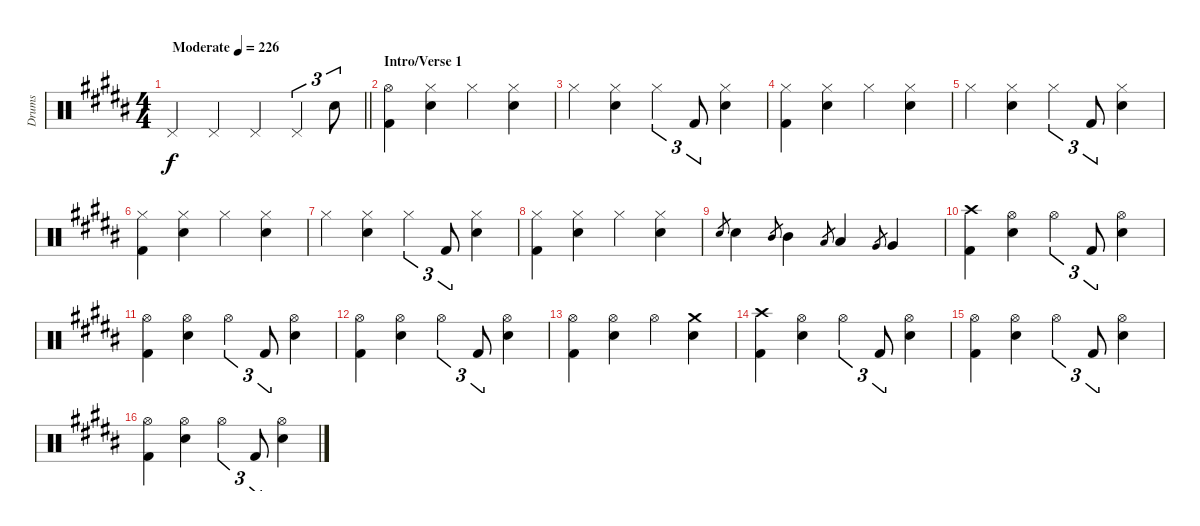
\track ("Drums" "Drums") {instrument percussion}
\staff {score}
\articulation defaults
\ts (4 4)
\tempo (226 "Moderate")
\clef neutral
\barLineRight lightlight
\ks b "Pedal Hi-Hat (hit)".4{dy f} "Pedal Hi-Hat (hit)".4 "Pedal Hi-Hat (hit)".4 "Pedal Hi-Hat (hit)".4{tu (3 2)} "Snare (hit) 2".8{tu (3 2)}
|
\section ("" "Intro/Verse 1")
("Hi-Hat (open)" "Kick (hit) 2").4 ("Hi-Hat (closed)" "Snare (hit) 2").4 "Hi-Hat (closed)".4 ("Hi-Hat (closed)" "Snare (hit) 2").4 |
"Hi-Hat (closed)".4 ("Hi-Hat (closed)" "Snare (hit) 2").4 "Hi-Hat (closed)".4{tu (3 2)} "Kick (hit) 2".8{tu (3 2)} ("Hi-Hat (closed)" "Snare (hit) 2").4 |
("Hi-Hat (closed)" "Kick (hit) 2").4 ("Hi-Hat (closed)" "Snare (hit) 2").4 "Hi-Hat (closed)".4 ("Hi-Hat (closed)" "Snare (hit) 2").4 |
"Hi-Hat (closed)".4 ("Hi-Hat (closed)" "Snare (hit) 2").4 "Hi-Hat (closed)".4{tu (3 2)} "Kick (hit) 2".8{tu (3 2)} ("Hi-Hat (closed)" "Snare (hit) 2").4 |
("Hi-Hat (closed)" "Kick (hit) 2").4 ("Hi-Hat (closed)" "Snare (hit) 2").4 "Hi-Hat (closed)".4 ("Hi-Hat (closed)" "Snare (hit) 2").4 |
"Hi-Hat (closed)".4 ("Hi-Hat (closed)" "Snare (hit) 2").4 "Hi-Hat (closed)".4{tu (3 2)} "Kick (hit) 2".8{tu (3 2)} ("Hi-Hat (closed)" "Snare (hit) 2").4 |
("Hi-Hat (closed)" "Kick (hit) 2").4 ("Hi-Hat (closed)" "Snare (hit) 2").4 "Hi-Hat (closed)".4 ("Hi-Hat (closed)" "Snare (hit) 2").4 |
"Snare (hit) 2".8{gr} "Snare (hit) 2".4 "Mid Tom (hit)".8{gr} "Mid Tom (hit)".4 "Low Tom (hit)".8{gr} "Low Tom (hit)".4 "Very Low Tom (hit)".8{gr} "Very Low Tom (hit)".4 |
("Crash high (hit)" "Kick (hit) 2").4 ("Hi-Hat (open)" "Snare (hit) 2").4 "Hi-Hat (open)".4{tu (3 2)} "Kick (hit) 2".8{tu (3 2)} ("Hi-Hat (open)" "Snare (hit) 2").4 |
("Hi-Hat (open)" "Kick (hit) 2").4 ("Hi-Hat (open)" "Snare (hit) 2").4 "Hi-Hat (open)".4{tu (3 2)} "Kick (hit) 2".8{tu (3 2)} ("Hi-Hat (open)" "Snare (hit) 2").4 |
("Hi-Hat (open)" "Kick (hit) 2").4 ("Hi-Hat (open)" "Snare (hit) 2").4 "Hi-Hat (open)".4{tu (3 2)} "Kick (hit) 2".8{tu (3 2)} ("Hi-Hat (open)" "Snare (hit) 2").4 |
("Hi-Hat (open)" "Kick (hit) 2").4 ("Hi-Hat (open)" "Snare (hit) 2").4 "Hi-Hat (open)".4 ("Crash medium (hit)" "Snare (hit) 2").4 |
("Crash high (hit)" "Kick (hit) 2").4 ("Hi-Hat (open)" "Snare (hit) 2").4 "Hi-Hat (open)".4{tu (3 2)} "Kick (hit) 2".8{tu (3 2)} ("Hi-Hat (open)" "Snare (hit) 2").4 |
("Hi-Hat (open)" "Kick (hit) 2").4 ("Hi-Hat (open)" "Snare (hit) 2").4 "Hi-Hat (open)".4{tu (3 2)} "Kick (hit) 2".8{tu (3 2)} ("Hi-Hat (open)" "Snare (hit) 2").4 |
("Hi-Hat (open)" "Kick (hit) 2").4 ("Hi-Hat (open)" "Snare (hit) 2").4 "Hi-Hat (open)".4{tu (3 2)} "Kick (hit) 2".8{tu (3 2)} ("Hi-Hat (open)" "Snare (hit) 2").4
